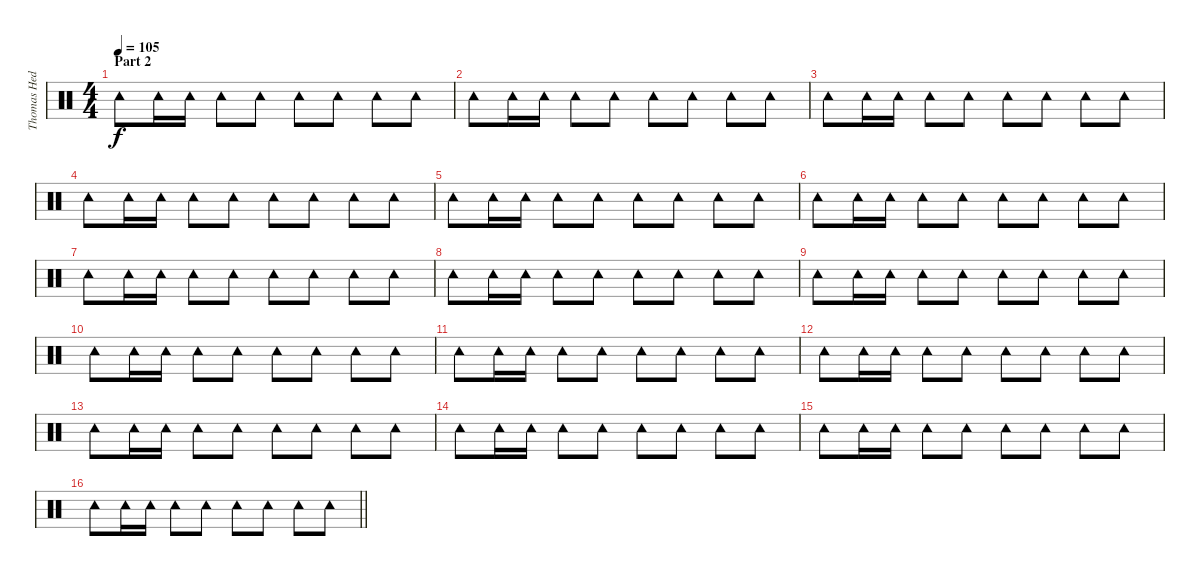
\track ("Thomas Hedlund" "Thomas Hed") {instrument percussion}
\staff {score}
\articulation defaults
\ts (4 4)
\section ("" "Part 2")
\tempo 105
\clef neutral
\ks c "Tambourine (hit)".8{dy f} "Tambourine (hit)".16 "Tambourine (hit)".16 "Tambourine (hit)".8 "Tambourine (hit)".8 "Tambourine (hit)".8 "Tambourine (hit)".8 "Tambourine (hit)".8 "Tambourine (hit)".8
|
"Tambourine (hit)".8 "Tambourine (hit)".16 "Tambourine (hit)".16 "Tambourine (hit)".8 "Tambourine (hit)".8 "Tambourine (hit)".8 "Tambourine (hit)".8 "Tambourine (hit)".8 "Tambourine (hit)".8 |
"Tambourine (hit)".8 "Tambourine (hit)".16 "Tambourine (hit)".16 "Tambourine (hit)".8 "Tambourine (hit)".8 "Tambourine (hit)".8 "Tambourine (hit)".8 "Tambourine (hit)".8 "Tambourine (hit)".8 |
"Tambourine (hit)".8 "Tambourine (hit)".16 "Tambourine (hit)".16 "Tambourine (hit)".8 "Tambourine (hit)".8 "Tambourine (hit)".8 "Tambourine (hit)".8 "Tambourine (hit)".8 "Tambourine (hit)".8 |
"Tambourine (hit)".8 "Tambourine (hit)".16 "Tambourine (hit)".16 "Tambourine (hit)".8 "Tambourine (hit)".8 "Tambourine (hit)".8 "Tambourine (hit)".8 "Tambourine (hit)".8 "Tambourine (hit)".8 |
"Tambourine (hit)".8 "Tambourine (hit)".16 "Tambourine (hit)".16 "Tambourine (hit)".8 "Tambourine (hit)".8 "Tambourine (hit)".8 "Tambourine (hit)".8 "Tambourine (hit)".8 "Tambourine (hit)".8 |
"Tambourine (hit)".8 "Tambourine (hit)".16 "Tambourine (hit)".16 "Tambourine (hit)".8 "Tambourine (hit)".8 "Tambourine (hit)".8 "Tambourine (hit)".8 "Tambourine (hit)".8 "Tambourine (hit)".8 |
"Tambourine (hit)".8 "Tambourine (hit)".16 "Tambourine (hit)".16 "Tambourine (hit)".8 "Tambourine (hit)".8 "Tambourine (hit)".8 "Tambourine (hit)".8 "Tambourine (hit)".8 "Tambourine (hit)".8 |
"Tambourine (hit)".8 "Tambourine (hit)".16 "Tambourine (hit)".16 "Tambourine (hit)".8 "Tambourine (hit)".8 "Tambourine (hit)".8 "Tambourine (hit)".8 "Tambourine (hit)".8 "Tambourine (hit)".8 |
"Tambourine (hit)".8 "Tambourine (hit)".16 "Tambourine (hit)".16 "Tambourine (hit)".8 "Tambourine (hit)".8 "Tambourine (hit)".8 "Tambourine (hit)".8 "Tambourine (hit)".8 "Tambourine (hit)".8 |
"Tambourine (hit)".8 "Tambourine (hit)".16 "Tambourine (hit)".16 "Tambourine (hit)".8 "Tambourine (hit)".8 "Tambourine (hit)".8 "Tambourine (hit)".8 "Tambourine (hit)".8 "Tambourine (hit)".8 |
"Tambourine (hit)".8 "Tambourine (hit)".16 "Tambourine (hit)".16 "Tambourine (hit)".8 "Tambourine (hit)".8 "Tambourine (hit)".8 "Tambourine (hit)".8 "Tambourine (hit)".8 "Tambourine (hit)".8 |
"Tambourine (hit)".8 "Tambourine (hit)".16 "Tambourine (hit)".16 "Tambourine (hit)".8 "Tambourine (hit)".8 "Tambourine (hit)".8 "Tambourine (hit)".8 "Tambourine (hit)".8 "Tambourine (hit)".8 |
"Tambourine (hit)".8 "Tambourine (hit)".16 "Tambourine (hit)".16 "Tambourine (hit)".8 "Tambourine (hit)".8 "Tambourine (hit)".8 "Tambourine (hit)".8 "Tambourine (hit)".8 "Tambourine (hit)".8 |
"Tambourine (hit)".8 "Tambourine (hit)".16 "Tambourine (hit)".16 "Tambourine (hit)".8 "Tambourine (hit)".8 "Tambourine (hit)".8 "Tambourine (hit)".8 "Tambourine (hit)".8 "Tambourine (hit)".8 |
\barLineRight lightlight "Tambourine (hit)".8 "Tambourine (hit)".16 "Tambourine (hit)".16 "Tambourine (hit)".8 "Tambourine (hit)".8 "Tambourine (hit)".8 "Tambourine (hit)".8 "Tambourine (hit)".8 "Tambourine (hit)".8
